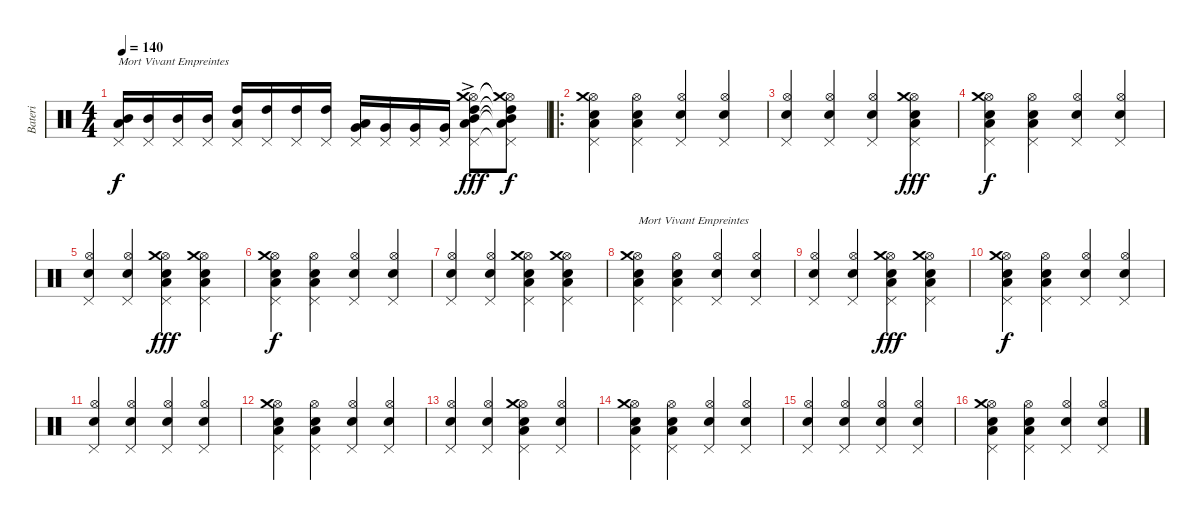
\track ("Bateri" "Bateri") {instrument percussion}
\staff {score}
\articulation defaults
\ts (4 4)
\tempo 140
\clef neutral
\ks c
("Mid Tom (hit)" "Low Tom (hit)" "Pedal Hi-Hat (hit)").16{txt "Mort Vivant Empreintes" dy f} ("Mid Tom (hit)" "Pedal Hi-Hat (hit)").16 ("Mid Tom (hit)" "Pedal Hi-Hat (hit)").16 ("Mid Tom (hit)" "Pedal Hi-Hat (hit)").16 ("High Tom (hit)" "Low Tom (hit)" "Pedal Hi-Hat (hit)").16 ("High Tom (hit)" "Pedal Hi-Hat (hit)").16 ("High Tom (hit)" "Pedal Hi-Hat (hit)").16 ("High Tom (hit)" "Pedal Hi-Hat (hit)").16 ("Very Low Tom (hit)" "Low Tom (hit)" "Pedal Hi-Hat (hit)").16 ("Very Low Tom (hit)" "Pedal Hi-Hat (hit)").16 ("Very Low Tom (hit)" "Pedal Hi-Hat (hit)").16 ("Very Low Tom (hit)" "Pedal Hi-Hat (hit)").16 ("Hi-Hat (open)"{ac} "Mid Tom (hit)"{ac} "Low Tom (hit)"{ac} "High Tom (hit)" "Crash medium (hit)" "Pedal Hi-Hat (hit)"{ac}).8{dy fff} ("Hi-Hat (open)"{t} "Mid Tom (hit)"{t} "Low Tom (hit)"{t} "High Tom (hit)"{t} "Crash medium (hit)"{t} "Pedal Hi-Hat (hit)"{t}).8{dy f} |
\ro
("Hi-Hat (open)" "Low Tom (hit)" "Snare (hit) 2" "Crash medium (hit)" "Pedal Hi-Hat (hit)").4 ("Hi-Hat (open)" "Low Tom (hit)" "Snare (hit) 2" "Pedal Hi-Hat (hit)").4 ("Hi-Hat (open)" "Snare (hit) 2" "Pedal Hi-Hat (hit)").4 ("Hi-Hat (open)" "Snare (hit) 2" "Pedal Hi-Hat (hit)").4 |
("Hi-Hat (open)" "Snare (hit) 2" "Pedal Hi-Hat (hit)").4 ("Hi-Hat (open)" "Snare (hit) 2" "Pedal Hi-Hat (hit)").4 ("Hi-Hat (open)" "Snare (hit) 2" "Pedal Hi-Hat (hit)").4 ("Hi-Hat (open)" "Low Tom (hit)" "Snare (hit) 2" "Crash medium (hit)" "Pedal Hi-Hat (hit)").4{dy fff} |
("Hi-Hat (open)" "Low Tom (hit)" "Snare (hit) 2" "Crash medium (hit)" "Pedal Hi-Hat (hit)").4{dy f} ("Hi-Hat (open)" "Low Tom (hit)" "Snare (hit) 2" "Pedal Hi-Hat (hit)").4 ("Hi-Hat (open)" "Snare (hit) 2" "Pedal Hi-Hat (hit)").4 ("Hi-Hat (open)" "Snare (hit) 2" "Pedal Hi-Hat (hit)").4 |
("Hi-Hat (open)" "Snare (hit) 2" "Pedal Hi-Hat (hit)").4 ("Hi-Hat (open)" "Snare (hit) 2" "Pedal Hi-Hat (hit)").4 ("Hi-Hat (open)" "Low Tom (hit)" "Snare (hit) 2" "Crash medium (hit)" "Pedal Hi-Hat (hit)").4{dy fff} ("Hi-Hat (open)" "Low Tom (hit)" "Snare (hit) 2" "Crash medium (hit)" "Pedal Hi-Hat (hit)").4 |
("Hi-Hat (open)" "Low Tom (hit)" "Snare (hit) 2" "Crash medium (hit)" "Pedal Hi-Hat (hit)").4{dy f} ("Hi-Hat (open)" "Low Tom (hit)" "Snare (hit) 2" "Pedal Hi-Hat (hit)").4 ("Hi-Hat (open)" "Snare (hit) 2" "Pedal Hi-Hat (hit)").4 ("Hi-Hat (open)" "Snare (hit) 2" "Pedal Hi-Hat (hit)").4 |
("Hi-Hat (open)" "Snare (hit) 2" "Pedal Hi-Hat (hit)").4 ("Hi-Hat (open)" "Snare (hit) 2" "Pedal Hi-Hat (hit)").4 ("Hi-Hat (open)" "Low Tom (hit)" "Snare (hit) 2" "Crash medium (hit)" "Pedal Hi-Hat (hit)").4 ("Hi-Hat (open)" "Low Tom (hit)" "Snare (hit) 2" "Crash medium (hit)" "Pedal Hi-Hat (hit)").4 |
("Hi-Hat (open)" "Low Tom (hit)" "Snare (hit) 2" "Crash medium (hit)" "Pedal Hi-Hat (hit)").4{txt "Mort Vivant Empreintes"} ("Hi-Hat (open)" "Low Tom (hit)" "Snare (hit) 2" "Pedal Hi-Hat (hit)").4 ("Hi-Hat (open)" "Snare (hit) 2" "Pedal Hi-Hat (hit)").4 ("Hi-Hat (open)" "Snare (hit) 2" "Pedal Hi-Hat (hit)").4 |
("Hi-Hat (open)" "Snare (hit) 2" "Pedal Hi-Hat (hit)").4 ("Hi-Hat (open)" "Snare (hit) 2" "Pedal Hi-Hat (hit)").4 ("Hi-Hat (open)" "Low Tom (hit)" "Snare (hit) 2" "Crash medium (hit)" "Pedal Hi-Hat (hit)").4{dy fff} ("Hi-Hat (open)" "Low Tom (hit)" "Snare (hit) 2" "Crash medium (hit)" "Pedal Hi-Hat (hit)").4 |
("Hi-Hat (open)" "Low Tom (hit)" "Snare (hit) 2" "Crash medium (hit)" "Pedal Hi-Hat (hit)").4{dy f} ("Hi-Hat (open)" "Low Tom (hit)" "Snare (hit) 2" "Pedal Hi-Hat (hit)").4 ("Hi-Hat (open)" "Snare (hit) 2" "Pedal Hi-Hat (hit)").4 ("Hi-Hat (open)" "Snare (hit) 2" "Pedal Hi-Hat (hit)").4 |
("Hi-Hat (open)" "Snare (hit) 2" "Pedal Hi-Hat (hit)").4 ("Hi-Hat (open)" "Snare (hit) 2" "Pedal Hi-Hat (hit)").4 ("Hi-Hat (open)" "Snare (hit) 2" "Pedal Hi-Hat (hit)").4 ("Hi-Hat (open)" "Snare (hit) 2" "Pedal Hi-Hat (hit)").4 |
("Hi-Hat (open)" "Low Tom (hit)" "Snare (hit) 2" "Crash medium (hit)" "Pedal Hi-Hat (hit)").4 ("Hi-Hat (open)" "Low Tom (hit)" "Snare (hit) 2" "Pedal Hi-Hat (hit)").4 ("Hi-Hat (open)" "Snare (hit) 2" "Pedal Hi-Hat (hit)").4 ("Hi-Hat (open)" "Snare (hit) 2" "Pedal Hi-Hat (hit)").4 |
("Hi-Hat (open)" "Snare (hit) 2" "Pedal Hi-Hat (hit)").4 ("Hi-Hat (open)" "Snare (hit) 2" "Pedal Hi-Hat (hit)").4 ("Hi-Hat (open)" "Low Tom (hit)" "Snare (hit) 2" "Crash medium (hit)" "Pedal Hi-Hat (hit)").4 ("Hi-Hat (open)" "Snare (hit) 2" "Pedal Hi-Hat (hit)").4 |
("Hi-Hat (open)" "Low Tom (hit)" "Snare (hit) 2" "Crash medium (hit)" "Pedal Hi-Hat (hit)").4 ("Hi-Hat (open)" "Low Tom (hit)" "Snare (hit) 2" "Pedal Hi-Hat (hit)").4 ("Hi-Hat (open)" "Snare (hit) 2" "Pedal Hi-Hat (hit)").4 ("Hi-Hat (open)" "Snare (hit) 2" "Pedal Hi-Hat (hit)").4 |
("Hi-Hat (open)" "Snare (hit) 2" "Pedal Hi-Hat (hit)").4 ("Hi-Hat (open)" "Snare (hit) 2" "Pedal Hi-Hat (hit)").4 ("Hi-Hat (open)" "Snare (hit) 2" "Pedal Hi-Hat (hit)").4 ("Hi-Hat (open)" "Snare (hit) 2" "Pedal Hi-Hat (hit)").4 |
("Hi-Hat (open)" "Low Tom (hit)" "Snare (hit) 2" "Crash medium (hit)" "Pedal Hi-Hat (hit)").4 ("Hi-Hat (open)" "Low Tom (hit)" "Snare (hit) 2" "Pedal Hi-Hat (hit)").4 ("Hi-Hat (open)" "Snare (hit) 2" "Pedal Hi-Hat (hit)").4 ("Hi-Hat (open)" "Snare (hit) 2" "Pedal Hi-Hat (hit)").4
